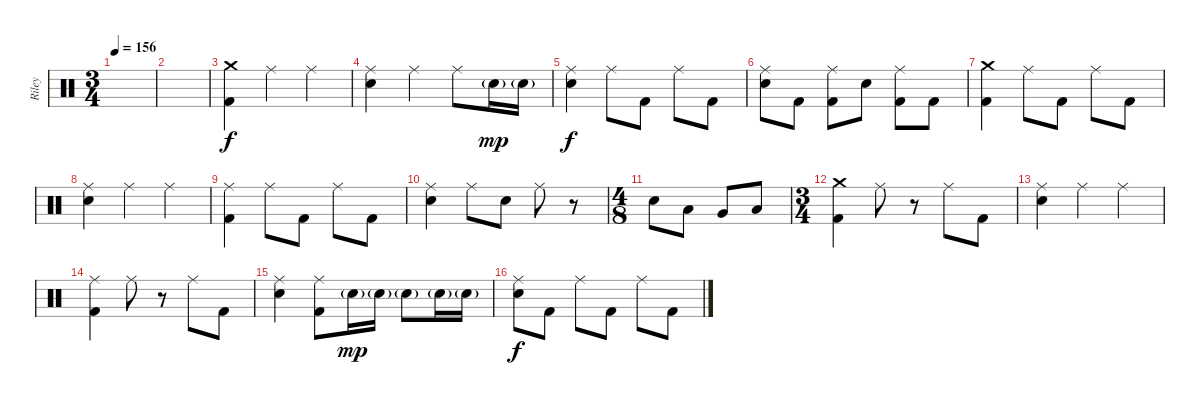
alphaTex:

\track ("Riley" "Riley") {instrument percussion}
\staff {score}
\articulation defaults
\ts (3 4)
\tempo 156
\clef neutral
\ks c
|
|
("Crash medium (hit)" "Kick (hit) 2").4 "Ride (middle)".4 "Ride (middle)".4 |
("Ride (middle)" "Electric Snare (hit)").4 "Ride (middle)".4 "Ride (middle)".8 "Electric Snare (hit)"{g}.16{dy mp} "Electric Snare (hit)"{g}.16 |
("Ride (middle)" "Electric Snare (hit)").4{dy f} "Ride (middle)".8 "Kick (hit) 2".8 "Ride (middle)".8 "Kick (hit) 2".8 |
("Ride (middle)" "Electric Snare (hit)").8 "Kick (hit) 2".8 ("Ride (middle)" "Kick (hit) 2").8 "Electric Snare (hit)".8 ("Ride (middle)" "Kick (hit) 2").8 "Kick (hit) 2".8 |
("Crash medium (hit)" "Kick (hit) 2").4 "Ride (middle)".8 "Kick (hit) 2".8 "Ride (middle)".8 "Kick (hit) 2".8 |
("Ride (middle)" "Electric Snare (hit)").4 "Ride (middle)".4 "Ride (middle)".4 |
("Ride (middle)" "Kick (hit) 2").4 "Ride (middle)".8 "Kick (hit) 2".8 "Ride (middle)".8 "Kick (hit) 2".8 |
("Ride (middle)" "Electric Snare (hit)").4 "Ride (middle)".8 "Electric Snare (hit)".8 "Ride (middle)".8 r.8 |
\ts (4 8)
"Electric Snare (hit)".8 "Low Tom (hit)".8 "Very Low Tom (hit)".8 "Low Floor Tom (hit)".8 |
\ts (3 4)
("Crash medium (hit)" "Kick (hit) 2").4 "Ride (middle)".8 r.8 "Ride (middle)".8 "Kick (hit) 2".8 |
("Ride (middle)" "Electric Snare (hit)").4 "Ride (middle)".4 "Ride (middle)".4 |
("Ride (middle)" "Kick (hit) 2").4 "Ride (middle)".8 r.8 "Ride (middle)".8 "Kick (hit) 2".8 |
("Ride (middle)" "Electric Snare (hit)").4 ("Ride (middle)" "Kick (hit) 2").8 "Electric Snare (hit)"{g}.16{dy mp} "Electric Snare (hit)"{g}.16 "Electric Snare (hit)"{g}.8 "Electric Snare (hit)"{g}.16 "Electric Snare (hit)"{g}.16 |
("Ride (middle)" "Electric Snare (hit)").8{dy f} "Kick (hit) 2".8 "Ride (middle)".8 "Kick (hit) 2".8 "Ride (middle)".8 "Kick (hit) 2".8
